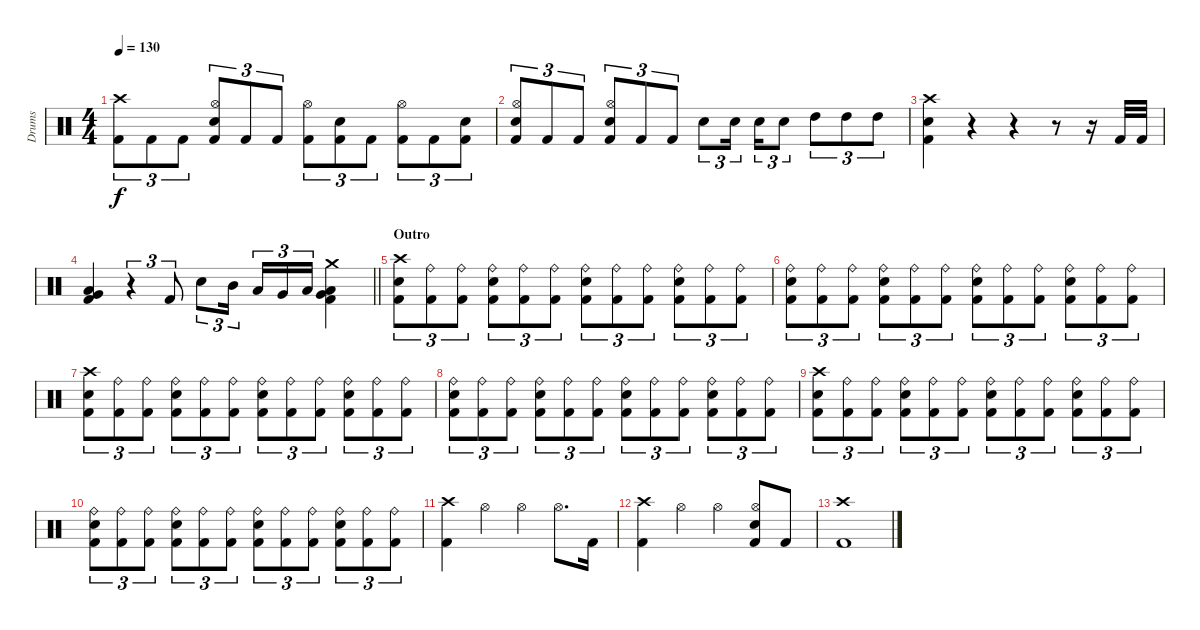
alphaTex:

\track ("Drums" "Drums") {instrument percussion}
\staff {score}
\articulation defaults
\ts (4 4)
\tempo 130
\clef neutral
\ks c
("Crash high (hit)" "Kick (hit) 2").8{tu (3 2) dy f} "Kick (hit) 2".8{tu (3 2)} "Kick (hit) 2".8{tu (3 2)} ("Hi-Hat (open)" "Electric Snare (hit)" "Kick (hit) 2").8{tu (3 2)} "Kick (hit) 2".8{tu (3 2)} "Kick (hit) 2".8{tu (3 2)} ("Hi-Hat (open)" "Kick (hit) 2").8{tu (3 2)} ("Electric Snare (hit)" "Kick (hit) 2").8{tu (3 2)} "Kick (hit) 2".8{tu (3 2)} ("Hi-Hat (open)" "Kick (hit) 2").8{tu (3 2)} "Kick (hit) 2".8{tu (3 2)} ("Electric Snare (hit)" "Kick (hit) 2").8{tu (3 2)} |
("Hi-Hat (open)" "Electric Snare (hit)" "Kick (hit) 2").8{tu (3 2)} "Kick (hit) 2".8{tu (3 2)} "Kick (hit) 2".8{tu (3 2)} ("Hi-Hat (open)" "Electric Snare (hit)" "Kick (hit) 2").8{tu (3 2)} "Kick (hit) 2".8{tu (3 2)} "Kick (hit) 2".8{tu (3 2)} "Electric Snare (hit)".8{tu (3 2)} "Electric Snare (hit)".16{tu (3 2) beam splitsecondary} "Electric Snare (hit)".16{tu (3 2)} "Electric Snare (hit)".8{tu (3 2)} "High Tom (hit)".8{tu (3 2)} "High Tom (hit)".8{tu (3 2)} "High Tom (hit)".8{tu (3 2)} |
("Crash high (hit)" "Electric Snare (hit)" "Kick (hit) 2").4 r.4 r.4 r.8 r.16 "Kick (hit) 2".32 "Kick (hit) 2".32 |
\barLineRight lightlight
("Low Tom (hit)" "Very Low Tom (hit)" "Kick (hit) 2").4 r.4{tu (3 2)} "Kick (hit) 2".8{tu (3 2)} "Electric Snare (hit)".8{tu (3 2)} "Mid Tom (hit)".16{tu (3 2) beam splitsecondary} "Low Tom (hit)".16{tu (3 2)} "Very Low Tom (hit)".16{tu (3 2)} "Low Floor Tom (hit)".16{tu (3 2)} ("Crash medium (hit)" "Low Tom (hit)" "Very Low Tom (hit)" "Kick (hit) 2").4 |
\section ("" "Outro")
("Crash high (hit)" "Electric Snare (hit)" "Kick (hit) 2").8{tu (3 2)} ("Ride (bell)" "Kick (hit) 2").8{tu (3 2)} ("Ride (bell)" "Kick (hit) 2").8{tu (3 2)} ("Ride (bell)" "Electric Snare (hit)" "Kick (hit) 2").8{tu (3 2)} ("Ride (bell)" "Kick (hit) 2").8{tu (3 2)} ("Ride (bell)" "Kick (hit) 2").8{tu (3 2)} ("Ride (bell)" "Electric Snare (hit)" "Kick (hit) 2").8{tu (3 2)} ("Ride (bell)" "Kick (hit) 2").8{tu (3 2)} ("Ride (bell)" "Kick (hit) 2").8{tu (3 2)} ("Ride (bell)" "Electric Snare (hit)" "Kick (hit) 2").8{tu (3 2)} ("Ride (bell)" "Kick (hit) 2").8{tu (3 2)} ("Ride (bell)" "Kick (hit) 2").8{tu (3 2)} |
("Ride (bell)" "Electric Snare (hit)" "Kick (hit) 2").8{tu (3 2)} ("Ride (bell)" "Kick (hit) 2").8{tu (3 2)} ("Ride (bell)" "Kick (hit) 2").8{tu (3 2)} ("Ride (bell)" "Electric Snare (hit)" "Kick (hit) 2").8{tu (3 2)} ("Ride (bell)" "Kick (hit) 2").8{tu (3 2)} ("Ride (bell)" "Kick (hit) 2").8{tu (3 2)} ("Ride (bell)" "Electric Snare (hit)" "Kick (hit) 2").8{tu (3 2)} ("Ride (bell)" "Kick (hit) 2").8{tu (3 2)} ("Ride (bell)" "Kick (hit) 2").8{tu (3 2)} ("Ride (bell)" "Electric Snare (hit)" "Kick (hit) 2").8{tu (3 2)} ("Ride (bell)" "Kick (hit) 2").8{tu (3 2)} ("Ride (bell)" "Kick (hit) 2").8{tu (3 2)} |
("Crash high (hit)" "Electric Snare (hit)" "Kick (hit) 2").8{tu (3 2)} ("Ride (bell)" "Kick (hit) 2").8{tu (3 2)} ("Ride (bell)" "Kick (hit) 2").8{tu (3 2)} ("Ride (bell)" "Electric Snare (hit)" "Kick (hit) 2").8{tu (3 2)} ("Ride (bell)" "Kick (hit) 2").8{tu (3 2)} ("Ride (bell)" "Kick (hit) 2").8{tu (3 2)} ("Ride (bell)" "Electric Snare (hit)" "Kick (hit) 2").8{tu (3 2)} ("Ride (bell)" "Kick (hit) 2").8{tu (3 2)} ("Ride (bell)" "Kick (hit) 2").8{tu (3 2)} ("Ride (bell)" "Electric Snare (hit)" "Kick (hit) 2").8{tu (3 2)} ("Ride (bell)" "Kick (hit) 2").8{tu (3 2)} ("Ride (bell)" "Kick (hit) 2").8{tu (3 2)} |
("Ride (bell)" "Electric Snare (hit)" "Kick (hit) 2").8{tu (3 2)} ("Ride (bell)" "Kick (hit) 2").8{tu (3 2)} ("Ride (bell)" "Kick (hit) 2").8{tu (3 2)} ("Ride (bell)" "Electric Snare (hit)" "Kick (hit) 2").8{tu (3 2)} ("Ride (bell)" "Kick (hit) 2").8{tu (3 2)} ("Ride (bell)" "Kick (hit) 2").8{tu (3 2)} ("Ride (bell)" "Electric Snare (hit)" "Kick (hit) 2").8{tu (3 2)} ("Ride (bell)" "Kick (hit) 2").8{tu (3 2)} ("Ride (bell)" "Kick (hit) 2").8{tu (3 2)} ("Ride (bell)" "Electric Snare (hit)" "Kick (hit) 2").8{tu (3 2)} ("Ride (bell)" "Kick (hit) 2").8{tu (3 2)} ("Ride (bell)" "Kick (hit) 2").8{tu (3 2)} |
("Crash high (hit)" "Electric Snare (hit)" "Kick (hit) 2").8{tu (3 2)} ("Ride (bell)" "Kick (hit) 2").8{tu (3 2)} ("Ride (bell)" "Kick (hit) 2").8{tu (3 2)} ("Ride (bell)" "Electric Snare (hit)" "Kick (hit) 2").8{tu (3 2)} ("Ride (bell)" "Kick (hit) 2").8{tu (3 2)} ("Ride (bell)" "Kick (hit) 2").8{tu (3 2)} ("Ride (bell)" "Electric Snare (hit)" "Kick (hit) 2").8{tu (3 2)} ("Ride (bell)" "Kick (hit) 2").8{tu (3 2)} ("Ride (bell)" "Kick (hit) 2").8{tu (3 2)} ("Ride (bell)" "Electric Snare (hit)" "Kick (hit) 2").8{tu (3 2)} ("Ride (bell)" "Kick (hit) 2").8{tu (3 2)} ("Ride (bell)" "Kick (hit) 2").8{tu (3 2)} |
("Ride (bell)" "Electric Snare (hit)" "Kick (hit) 2").8{tu (3 2)} ("Ride (bell)" "Kick (hit) 2").8{tu (3 2)} ("Ride (bell)" "Kick (hit) 2").8{tu (3 2)} ("Ride (bell)" "Electric Snare (hit)" "Kick (hit) 2").8{tu (3 2)} ("Ride (bell)" "Kick (hit) 2").8{tu (3 2)} ("Ride (bell)" "Kick (hit) 2").8{tu (3 2)} ("Ride (bell)" "Electric Snare (hit)" "Kick (hit) 2").8{tu (3 2)} ("Ride (bell)" "Kick (hit) 2").8{tu (3 2)} ("Ride (bell)" "Kick (hit) 2").8{tu (3 2)} ("Ride (bell)" "Electric Snare (hit)" "Kick (hit) 2").8{tu (3 2)} ("Ride (bell)" "Kick (hit) 2").8{tu (3 2)} ("Ride (bell)" "Kick (hit) 2").8{tu (3 2)} |
("Crash high (hit)" "Kick (hit) 2").4 "Hi-Hat (open)".4 "Hi-Hat (open)".4 "Hi-Hat (open)".8{d} "Kick (hit) 2".16 |
("Crash high (hit)" "Kick (hit) 2").4 "Hi-Hat (open)".4 "Hi-Hat (open)".4 ("Hi-Hat (open)" "Electric Snare (hit)" "Kick (hit) 2").8 "Kick (hit) 2".8 |
("Crash high (hit)" "Kick (hit) 2").1
